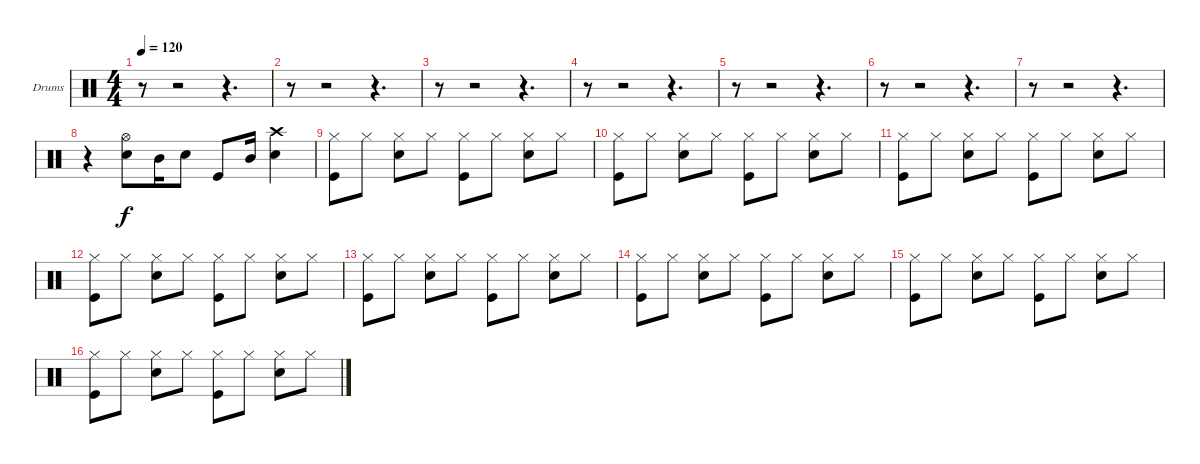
\bracketExtendMode groupsimilarinstruments
\firstSystemTrackNameOrientation horizontal
\otherSystemsTrackNameOrientation horizontal
\track ("Drumkit" "Drums") {instrument percussion}
\staff {score}
\articulation defaults
\ts (4 4)
\tempo 120
\clef neutral
\ks c
r.8{dy f} r.2 r.4{d} |
r.8 r.2 r.4{d} |
r.8 r.2 r.4{d} |
r.8 r.2 r.4{d} |
r.8 r.2 r.4{d} |
r.8 r.2 r.4{d} |
r.8 r.2 r.4{d} |
r.4 ("Snare (hit) 2" "Hi-Hat (open)").8 "Mid Tom (hit)".16 "Snare (hit) 2".8 "Kick (hit)".8 "Mid Tom (hit)".16 ("Crash high (hit)" "Snare (hit) 2").4 |
("Hi-Hat (closed)" "Kick (hit)").8 "Hi-Hat (closed)".8 ("Hi-Hat (closed)" "Snare (hit) 2").8 "Hi-Hat (closed)".8 ("Hi-Hat (closed)" "Kick (hit)").8 "Hi-Hat (closed)".8 ("Hi-Hat (closed)" "Snare (hit) 2").8 "Hi-Hat (closed)".8 |
("Hi-Hat (closed)" "Kick (hit)").8 "Hi-Hat (closed)".8 ("Hi-Hat (closed)" "Snare (hit) 2").8 "Hi-Hat (closed)".8 ("Hi-Hat (closed)" "Kick (hit)").8 "Hi-Hat (closed)".8 ("Hi-Hat (closed)" "Snare (hit) 2").8 "Hi-Hat (closed)".8 |
("Hi-Hat (closed)" "Kick (hit)").8 "Hi-Hat (closed)".8 ("Hi-Hat (closed)" "Snare (hit) 2").8 "Hi-Hat (closed)".8 ("Hi-Hat (closed)" "Kick (hit)").8 "Hi-Hat (closed)".8 ("Hi-Hat (closed)" "Snare (hit) 2").8 "Hi-Hat (closed)".8 |
("Hi-Hat (closed)" "Kick (hit)").8 "Hi-Hat (closed)".8 ("Hi-Hat (closed)" "Snare (hit) 2").8 "Hi-Hat (closed)".8 ("Hi-Hat (closed)" "Kick (hit)").8 "Hi-Hat (closed)".8 ("Hi-Hat (closed)" "Snare (hit) 2").8 "Hi-Hat (closed)".8 |
("Hi-Hat (closed)" "Kick (hit)").8 "Hi-Hat (closed)".8 ("Hi-Hat (closed)" "Snare (hit) 2").8 "Hi-Hat (closed)".8 ("Hi-Hat (closed)" "Kick (hit)").8 "Hi-Hat (closed)".8 ("Hi-Hat (closed)" "Snare (hit) 2").8 "Hi-Hat (closed)".8 |
("Hi-Hat (closed)" "Kick (hit)").8 "Hi-Hat (closed)".8 ("Hi-Hat (closed)" "Snare (hit) 2").8 "Hi-Hat (closed)".8 ("Hi-Hat (closed)" "Kick (hit)").8 "Hi-Hat (closed)".8 ("Hi-Hat (closed)" "Snare (hit) 2").8 "Hi-Hat (closed)".8 |
("Hi-Hat (closed)" "Kick (hit)").8 "Hi-Hat (closed)".8 ("Hi-Hat (closed)" "Snare (hit) 2").8 "Hi-Hat (closed)".8 ("Hi-Hat (closed)" "Kick (hit)").8 "Hi-Hat (closed)".8 ("Hi-Hat (closed)" "Snare (hit) 2").8 "Hi-Hat (closed)".8 |
("Hi-Hat (closed)" "Kick (hit)").8 "Hi-Hat (closed)".8 ("Hi-Hat (closed)" "Snare (hit) 2").8 "Hi-Hat (closed)".8 ("Hi-Hat (closed)" "Kick (hit)").8 "Hi-Hat (closed)".8 ("Hi-Hat (closed)" "Snare (hit) 2").8 "Hi-Hat (closed)".8
